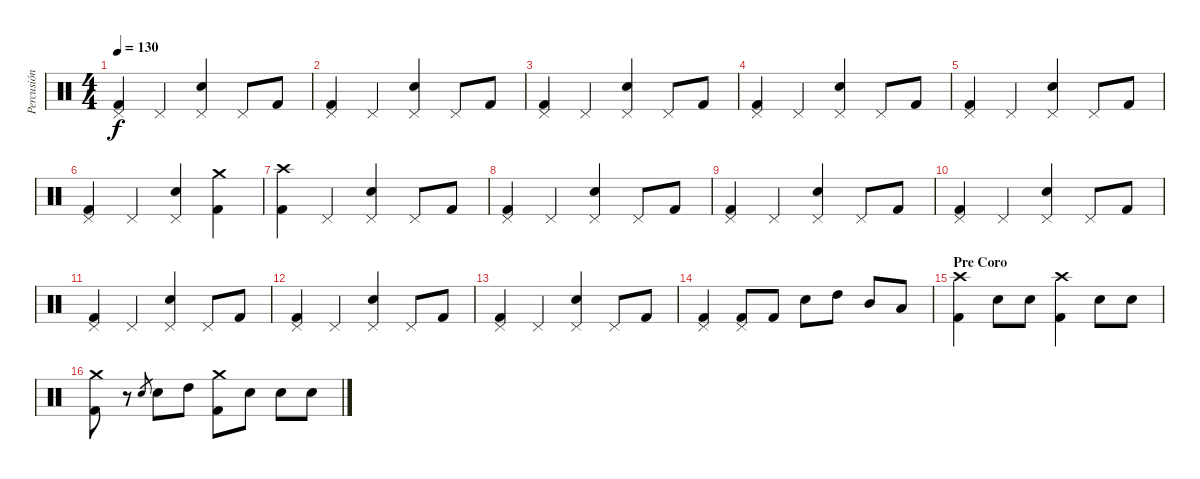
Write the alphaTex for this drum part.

\track ("Percusión" "Percusión") {instrument percussion}
\staff {score}
\articulation defaults
\ts (4 4)
\tempo 130
\clef neutral
\ks c
("Pedal Hi-Hat (hit)" "Kick (hit) 2").4{dy f} "Pedal Hi-Hat (hit)".4 ("Pedal Hi-Hat (hit)" "Electric Snare (hit)").4 "Pedal Hi-Hat (hit)".8 "Kick (hit) 2".8 |
("Pedal Hi-Hat (hit)" "Kick (hit) 2").4 "Pedal Hi-Hat (hit)".4 ("Pedal Hi-Hat (hit)" "Electric Snare (hit)").4 "Pedal Hi-Hat (hit)".8 "Kick (hit) 2".8 |
("Pedal Hi-Hat (hit)" "Kick (hit) 2").4 "Pedal Hi-Hat (hit)".4 ("Pedal Hi-Hat (hit)" "Electric Snare (hit)").4 "Pedal Hi-Hat (hit)".8 "Kick (hit) 2".8 |
("Pedal Hi-Hat (hit)" "Kick (hit) 2").4 "Pedal Hi-Hat (hit)".4 ("Pedal Hi-Hat (hit)" "Electric Snare (hit)").4 "Pedal Hi-Hat (hit)".8 "Kick (hit) 2".8 |
("Pedal Hi-Hat (hit)" "Kick (hit) 2").4 "Pedal Hi-Hat (hit)".4 ("Pedal Hi-Hat (hit)" "Electric Snare (hit)").4 "Pedal Hi-Hat (hit)".8 "Kick (hit) 2".8 |
("Pedal Hi-Hat (hit)" "Kick (hit) 2").4 "Pedal Hi-Hat (hit)".4 ("Pedal Hi-Hat (hit)" "Electric Snare (hit)").4 ("Crash medium (hit)" "Kick (hit) 2").4 |
("Crash high (hit)" "Kick (hit) 2").4 "Pedal Hi-Hat (hit)".4 ("Pedal Hi-Hat (hit)" "Electric Snare (hit)").4 "Pedal Hi-Hat (hit)".8 "Kick (hit) 2".8 |
("Pedal Hi-Hat (hit)" "Kick (hit) 2").4 "Pedal Hi-Hat (hit)".4 ("Pedal Hi-Hat (hit)" "Electric Snare (hit)").4 "Pedal Hi-Hat (hit)".8 "Kick (hit) 2".8 |
("Pedal Hi-Hat (hit)" "Kick (hit) 2").4 "Pedal Hi-Hat (hit)".4 ("Pedal Hi-Hat (hit)" "Electric Snare (hit)").4 "Pedal Hi-Hat (hit)".8 "Kick (hit) 2".8 |
("Pedal Hi-Hat (hit)" "Kick (hit) 2").4 "Pedal Hi-Hat (hit)".4 ("Pedal Hi-Hat (hit)" "Electric Snare (hit)").4 "Pedal Hi-Hat (hit)".8 "Kick (hit) 2".8 |
("Pedal Hi-Hat (hit)" "Kick (hit) 2").4 "Pedal Hi-Hat (hit)".4 ("Pedal Hi-Hat (hit)" "Electric Snare (hit)").4 "Pedal Hi-Hat (hit)".8 "Kick (hit) 2".8 |
("Pedal Hi-Hat (hit)" "Kick (hit) 2").4 "Pedal Hi-Hat (hit)".4 ("Pedal Hi-Hat (hit)" "Electric Snare (hit)").4 "Pedal Hi-Hat (hit)".8 "Kick (hit) 2".8 |
("Pedal Hi-Hat (hit)" "Kick (hit) 2").4 "Pedal Hi-Hat (hit)".4 ("Pedal Hi-Hat (hit)" "Electric Snare (hit)").4 "Pedal Hi-Hat (hit)".8 "Kick (hit) 2".8 |
("Pedal Hi-Hat (hit)" "Kick (hit) 2").4 ("Pedal Hi-Hat (hit)" "Kick (hit) 2").8 "Kick (hit) 2".8 "Electric Snare (hit)".8 "High Tom (hit)".8 "Mid Tom (hit)".8 "Low Tom (hit)".8 |
\section ("" "Pre Coro")
("Crash high (hit)" "Kick (hit) 2").4 "Electric Snare (hit)".8 "Electric Snare (hit)".8 ("Crash high (hit)" "Kick (hit) 2").4 "Electric Snare (hit)".8 "Electric Snare (hit)".8 |
("Crash medium (hit)" "Kick (hit) 2").8 r.8 "Electric Snare (hit)".8{gr} "Electric Snare (hit)".8 "High Tom (hit)".8 ("Crash medium (hit)" "Kick (hit) 2").8 "Electric Snare (hit)".8 "Electric Snare (hit)".8 "Electric Snare (hit)".8
